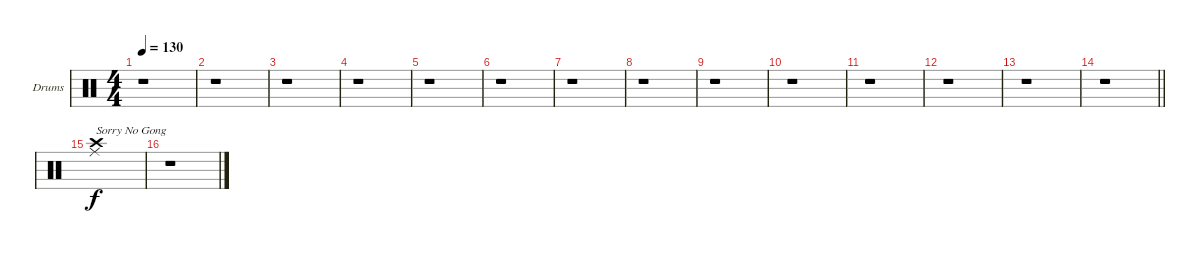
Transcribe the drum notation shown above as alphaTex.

\defaultSystemsLayout 4
\bracketExtendMode groupsimilarinstruments
\firstSystemTrackNameOrientation horizontal
\otherSystemsTrackNameOrientation horizontal
\chordDiagramsInScore
\track ("Drumkit" "Drums") {instrument percussion}
\staff {score}
\articulation defaults
\ts (4 4)
\scale
0.38796
\tempo 130
\accidentals auto
\clef neutral
\ottava regular
\simile none
\scale
0.375465
\ks c
r.1{dy f} |
\scale
0.204013
\scale
0.208178 r.1 |
\scale
0.204013
\scale
0.208178 r.1 |
\scale
0.204013
\scale
0.208178 r.1 |
\scale
0.25
\scale
0.25 r.1 |
\scale
0.25
\scale
0.25 r.1 |
\scale
0.25 r.1 |
r.1 |
r.1 |
r.1 |
r.1 |
r.1 |
r.1 |
\scale
0.25
\barLineRight lightlight
r.1 |
\scale
0.25 ("Crash high (hit)" "Ride (middle)").1{txt "Sorry No Gong"} |
\scale
0.25 r.1
